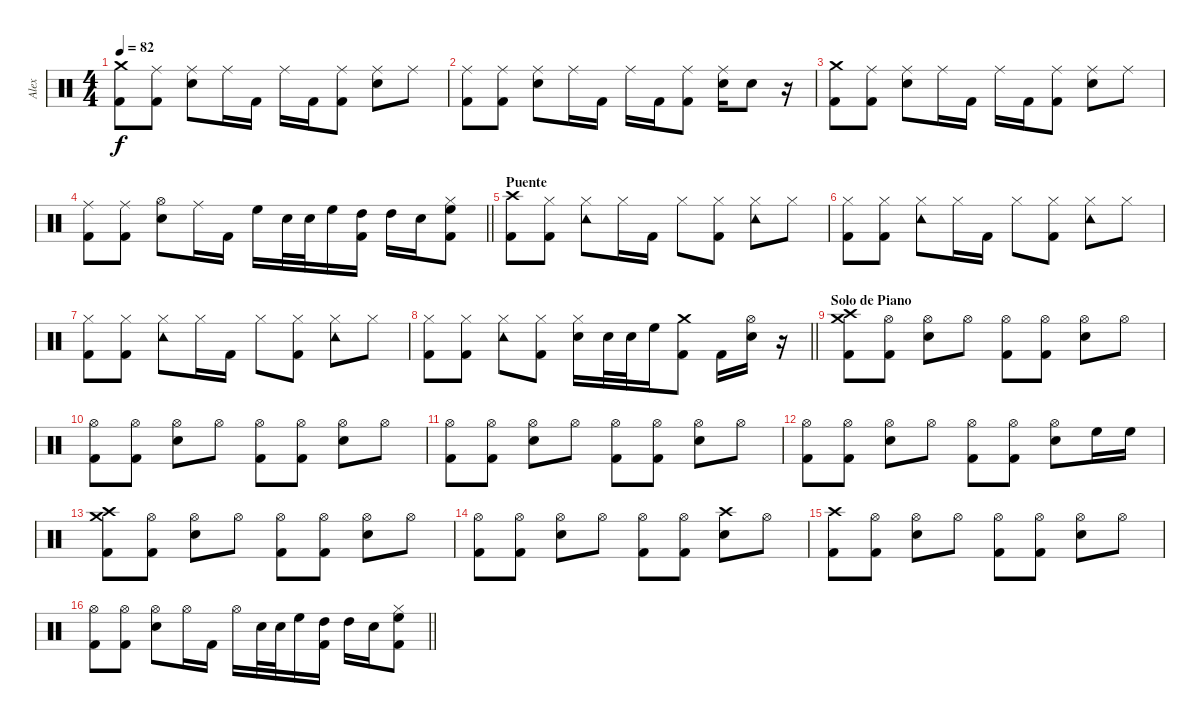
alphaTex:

\track ("Alex" "Alex") {instrument percussion}
\staff {score}
\articulation defaults
\ts (4 4)
\tempo 82
\clef neutral
\ks c
("Crash medium (hit)" "Kick (hit) 2").8{dy f} ("Ride (middle)" "Kick (hit) 2").8 ("Ride (middle)" "Electric Snare (hit)").8 "Ride (middle)".16 "Kick (hit) 2".16 "Ride (middle)".16 "Kick (hit) 2".16 ("Ride (middle)" "Kick (hit) 2").8 ("Ride (middle)" "Electric Snare (hit)").8 "Ride (middle)".8 |
("Ride (middle)" "Kick (hit) 2").8 ("Ride (middle)" "Kick (hit) 2").8 ("Ride (middle)" "Electric Snare (hit)").8 "Ride (middle)".16 "Kick (hit) 2".16 "Ride (middle)".16 "Kick (hit) 2".16 ("Ride (middle)" "Kick (hit) 2").8 ("Ride (middle)" "Electric Snare (hit)").16 "Electric Snare (hit)".8 r.16 |
("Crash medium (hit)" "Kick (hit) 2").8 ("Ride (middle)" "Kick (hit) 2").8 ("Ride (middle)" "Electric Snare (hit)").8 "Ride (middle)".16 "Kick (hit) 2".16 "Ride (middle)".16 "Kick (hit) 2".16 ("Ride (middle)" "Kick (hit) 2").8 ("Ride (middle)" "Electric Snare (hit)").8 "Ride (middle)".8 |
\barLineRight lightlight
("Ride (middle)" "Kick (hit) 2").8 ("Ride (middle)" "Kick (hit) 2").8 ("Hi-Hat (open)" "Electric Snare (hit)").8 "Ride (middle)".16 "Kick (hit) 2".16 "High Floor Tom (hit)".16 "Electric Snare (hit)".32 "Electric Snare (hit)".32 "High Floor Tom (hit)".16 ("Kick (hit) 2" "High Tom (hit)").16 "High Tom (hit)".16 "Electric Snare (hit)".16 ("Kick (hit) 2" "High Floor Tom (hit)" "Hi-Hat (closed)").8 |
\section ("" "Puente")
("Crash high (hit)" "Kick (hit) 2").8 ("Hi-Hat (closed)" "Kick (hit) 2").8{volume 11} ("Hi-Hat (closed)" "Tambourine (hit)").8 "Hi-Hat (closed)".16 "Kick (hit) 2".16 "Hi-Hat (closed)".8 ("Hi-Hat (closed)" "Kick (hit) 2").8 ("Hi-Hat (closed)" "Tambourine (hit)").8 "Hi-Hat (closed)".8 |
("Hi-Hat (closed)" "Kick (hit) 2").8 ("Hi-Hat (closed)" "Kick (hit) 2").8 ("Hi-Hat (closed)" "Tambourine (hit)").8 "Hi-Hat (closed)".16 "Kick (hit) 2".16 "Hi-Hat (closed)".8 ("Hi-Hat (closed)" "Kick (hit) 2").8 ("Hi-Hat (closed)" "Tambourine (hit)").8 "Hi-Hat (closed)".8 |
("Hi-Hat (closed)" "Kick (hit) 2").8 ("Hi-Hat (closed)" "Kick (hit) 2").8 ("Hi-Hat (closed)" "Tambourine (hit)").8 "Hi-Hat (closed)".16 "Kick (hit) 2".16 "Hi-Hat (closed)".8 ("Hi-Hat (closed)" "Kick (hit) 2").8 ("Hi-Hat (closed)" "Tambourine (hit)").8 "Hi-Hat (closed)".8 |
\barLineRight lightlight
("Hi-Hat (closed)" "Kick (hit) 2").8 ("Hi-Hat (closed)" "Kick (hit) 2").8 ("Hi-Hat (closed)" "Tambourine (hit)").8 ("Hi-Hat (closed)" "Kick (hit) 2").8 ("Hi-Hat (closed)" "Electric Snare (hit)").16{volume 14} "Electric Snare (hit)".32 "Electric Snare (hit)".32 "High Floor Tom (hit)".16 ("Crash medium (hit)" "Kick (hit) 2").8 "Kick (hit) 2".16 ("Hi-Hat (open)" "Electric Snare (hit)").16 r.16 |
\section ("" "Solo de Piano")
("Crash high (hit)" "Crash medium (hit)" "Kick (hit) 2").8 ("Hi-Hat (open)" "Kick (hit) 2").8 ("Hi-Hat (open)" "Electric Snare (hit)").8 "Hi-Hat (open)".8 ("Hi-Hat (open)" "Kick (hit) 2").8 ("Hi-Hat (open)" "Kick (hit) 2").8 ("Hi-Hat (open)" "Electric Snare (hit)").8 "Hi-Hat (open)".8 |
("Hi-Hat (open)" "Kick (hit) 2").8 ("Hi-Hat (open)" "Kick (hit) 2").8 ("Hi-Hat (open)" "Electric Snare (hit)").8 "Hi-Hat (open)".8 ("Hi-Hat (open)" "Kick (hit) 2").8 ("Hi-Hat (open)" "Kick (hit) 2").8 ("Hi-Hat (open)" "Electric Snare (hit)").8 "Hi-Hat (open)".8 |
("Hi-Hat (open)" "Kick (hit) 2").8 ("Hi-Hat (open)" "Kick (hit) 2").8 ("Hi-Hat (open)" "Electric Snare (hit)").8 "Hi-Hat (open)".8 ("Hi-Hat (open)" "Kick (hit) 2").8 ("Hi-Hat (open)" "Kick (hit) 2").8 ("Hi-Hat (open)" "Electric Snare (hit)").8 "Hi-Hat (open)".8 |
("Hi-Hat (open)" "Kick (hit) 2").8 ("Hi-Hat (open)" "Kick (hit) 2").8 ("Hi-Hat (open)" "Electric Snare (hit)").8 "Hi-Hat (open)".8 ("Hi-Hat (open)" "Kick (hit) 2").8 ("Hi-Hat (open)" "Kick (hit) 2").8 ("Hi-Hat (open)" "Electric Snare (hit)").8 "High Floor Tom (hit)".16 "High Floor Tom (hit)".16 |
("Crash high (hit)" "Crash medium (hit)" "Kick (hit) 2").8 ("Hi-Hat (open)" "Kick (hit) 2").8 ("Hi-Hat (open)" "Electric Snare (hit)").8 "Hi-Hat (open)".8 ("Hi-Hat (open)" "Kick (hit) 2").8 ("Hi-Hat (open)" "Kick (hit) 2").8 ("Hi-Hat (open)" "Electric Snare (hit)").8 "Hi-Hat (open)".8 |
("Hi-Hat (open)" "Kick (hit) 2").8 ("Hi-Hat (open)" "Kick (hit) 2").8 ("Hi-Hat (open)" "Electric Snare (hit)").8 "Hi-Hat (open)".8 ("Hi-Hat (open)" "Kick (hit) 2").8 ("Hi-Hat (open)" "Kick (hit) 2").8 ("Crash high (hit)" "Electric Snare (hit)").8 "Hi-Hat (open)".8 |
("Crash high (hit)" "Kick (hit) 2").8 ("Hi-Hat (open)" "Kick (hit) 2").8 ("Hi-Hat (open)" "Electric Snare (hit)").8 "Hi-Hat (open)".8 ("Hi-Hat (open)" "Kick (hit) 2").8 ("Hi-Hat (open)" "Kick (hit) 2").8 ("Hi-Hat (open)" "Electric Snare (hit)").8 "Hi-Hat (open)".8 |
\barLineRight lightlight
("Hi-Hat (open)" "Kick (hit) 2").8 ("Hi-Hat (open)" "Kick (hit) 2").8 ("Hi-Hat (open)" "Electric Snare (hit)").8 "Hi-Hat (open)".16 "Kick (hit) 2".16 "Hi-Hat (open)".16 "Electric Snare (hit)".32 "Electric Snare (hit)".32 "High Floor Tom (hit)".16 ("Kick (hit) 2" "High Tom (hit)").16 "High Tom (hit)".16 "Electric Snare (hit)".16 ("Kick (hit) 2" "High Floor Tom (hit)" "Hi-Hat (closed)").8
